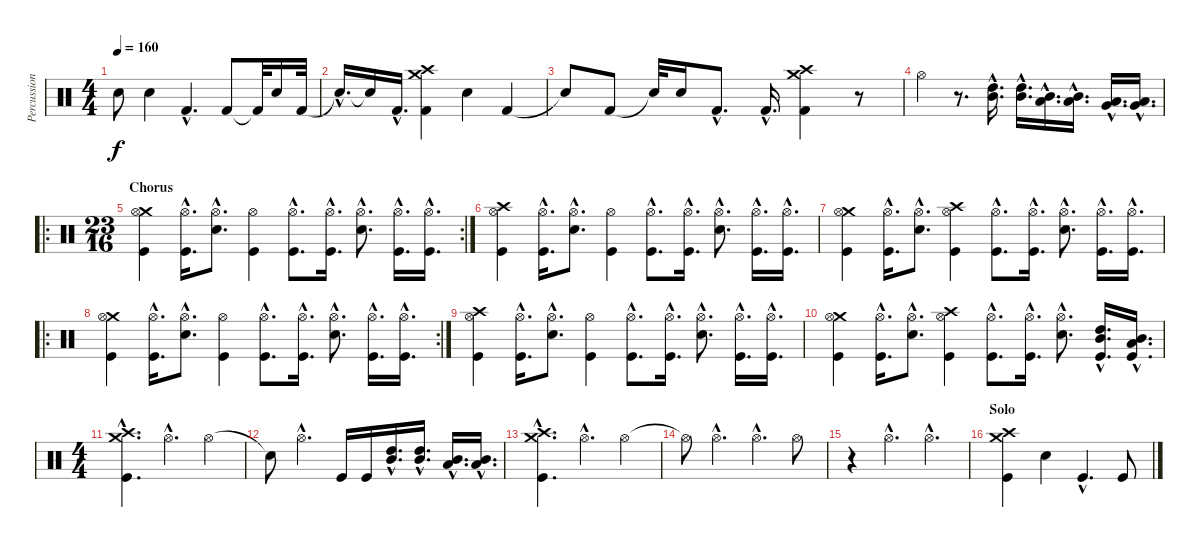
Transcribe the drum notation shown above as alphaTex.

\track ("Percussion" "Percussion") {instrument percussion}
\staff {score}
\articulation defaults
\ts (4 4)
\tempo 160
\clef neutral
\ks c "Snare (hit)"{t}.8{dy f} "Electric Snare (hit)".4 "Kick (hit) 2"{hac}.4{d} "Kick (hit) 2".8 "Kick (hit) 2"{t}.32 "Electric Snare (hit)".16 "Kick (hit) 2".32
|
"Snare (hit)"{hac t}.16{d} "Snare (hit)"{t}.16 "Kick (hit) 2"{hac}.16{d} ("Crash medium (hit)" "Crash high (hit)" "Kick (hit) 2").4 "Electric Snare (hit)".4 "Kick (hit) 2".4 |
"Snare (hit)"{t}.8 "Kick (hit) 2".8 "Snare (hit)"{t}.32 "Electric Snare (hit)".16 "Kick (hit) 2"{hac}.8{d} "Kick (hit) 2"{hac}.16{d} ("Crash medium (hit)" "Crash high (hit)" "Kick (hit) 2").4 r.8 |
"Hi-Hat (open)".4 r.8{d} ("High Tom (hit)"{hac} "Mid Tom (hit)"{hac}).16{d} ("High Tom (hit)"{hac} "Mid Tom (hit)"{hac}).16{d} ("Mid Tom (hit)"{hac} "Low Tom (hit)"{hac}).16{d} ("Mid Tom (hit)"{hac} "Low Tom (hit)"{hac}).16{d} ("Low Tom (hit)"{hac} "Very Low Tom (hit)"{hac}).16{d} ("Low Tom (hit)"{hac} "Very Low Tom (hit)"{hac}).16{d} |
\ro
\rc 2
\ts (23 16)
\section ("" "Chorus")
("Crash medium (hit)" "Hi-Hat (open)" "Kick (hit)").4 ("Hi-Hat (open)"{hac} "Kick (hit)"{hac}).16{d} ("Hi-Hat (open)"{hac} "Electric Snare (hit)"{hac}).8{d} ("Hi-Hat (open)" "Kick (hit)").4 ("Hi-Hat (open)"{hac} "Kick (hit)"{hac}).8{d} ("Hi-Hat (open)"{hac} "Kick (hit)"{hac}).16{d} ("Hi-Hat (open)"{hac} "Electric Snare (hit)"{hac}).8{d} ("Hi-Hat (open)"{hac} "Kick (hit)"{hac}).16{d} ("Hi-Hat (open)"{hac} "Kick (hit)"{hac}).16{d} |
("Crash high (hit)" "Hi-Hat (open)" "Kick (hit)").4 ("Hi-Hat (open)"{hac} "Kick (hit)"{hac}).16{d} ("Hi-Hat (open)"{hac} "Electric Snare (hit)"{hac}).8{d} ("Hi-Hat (open)" "Kick (hit)").4 ("Hi-Hat (open)"{hac} "Kick (hit)"{hac}).8{d} ("Hi-Hat (open)"{hac} "Kick (hit)"{hac}).16{d} ("Hi-Hat (open)"{hac} "Electric Snare (hit)"{hac}).8{d} ("Hi-Hat (open)"{hac} "Kick (hit)"{hac}).16{d} ("Hi-Hat (open)"{hac} "Kick (hit)"{hac}).16{d} |
("Crash medium (hit)" "Hi-Hat (open)" "Kick (hit)").4 ("Hi-Hat (open)"{hac} "Kick (hit)"{hac}).16{d} ("Hi-Hat (open)"{hac} "Electric Snare (hit)"{hac}).8{d} ("Crash high (hit)" "Hi-Hat (open)" "Kick (hit)").4 ("Hi-Hat (open)"{hac} "Kick (hit)"{hac}).8{d} ("Hi-Hat (open)"{hac} "Kick (hit)"{hac}).16{d} ("Hi-Hat (open)"{hac} "Electric Snare (hit)"{hac}).8{d} ("Hi-Hat (open)"{hac} "Kick (hit)"{hac}).16{d} ("Hi-Hat (open)"{hac} "Kick (hit)"{hac}).16{d} |
\ro
\rc 2
("Crash medium (hit)" "Hi-Hat (open)" "Kick (hit)").4 ("Hi-Hat (open)"{hac} "Kick (hit)"{hac}).16{d} ("Hi-Hat (open)"{hac} "Electric Snare (hit)"{hac}).8{d} ("Hi-Hat (open)" "Kick (hit)").4 ("Hi-Hat (open)"{hac} "Kick (hit)"{hac}).8{d} ("Hi-Hat (open)"{hac} "Kick (hit)"{hac}).16{d} ("Hi-Hat (open)"{hac} "Electric Snare (hit)"{hac}).8{d} ("Hi-Hat (open)"{hac} "Kick (hit)"{hac}).16{d} ("Hi-Hat (open)"{hac} "Kick (hit)"{hac}).16{d} |
("Crash high (hit)" "Hi-Hat (open)" "Kick (hit)").4 ("Hi-Hat (open)"{hac} "Kick (hit)"{hac}).16{d} ("Hi-Hat (open)"{hac} "Electric Snare (hit)"{hac}).8{d} ("Hi-Hat (open)" "Kick (hit)").4 ("Hi-Hat (open)"{hac} "Kick (hit)"{hac}).8{d} ("Hi-Hat (open)"{hac} "Kick (hit)"{hac}).16{d} ("Hi-Hat (open)"{hac} "Electric Snare (hit)"{hac}).8{d} ("Hi-Hat (open)"{hac} "Kick (hit)"{hac}).16{d} ("Hi-Hat (open)"{hac} "Kick (hit)"{hac}).16{d} |
("Crash medium (hit)" "Hi-Hat (open)" "Kick (hit)").4 ("Hi-Hat (open)"{hac} "Kick (hit)"{hac}).16{d} ("Hi-Hat (open)"{hac} "Electric Snare (hit)"{hac}).8{d} ("Crash high (hit)" "Hi-Hat (open)" "Kick (hit)").4 ("Hi-Hat (open)"{hac} "Kick (hit)"{hac}).8{d} ("Hi-Hat (open)"{hac} "Kick (hit)"{hac}).16{d} ("Hi-Hat (open)"{hac} "Electric Snare (hit)"{hac}).8{d} ("High Tom (hit)"{hac} "Mid Tom (hit)"{hac} "Kick (hit)"{hac}).16{d} ("Mid Tom (hit)"{hac} "Low Tom (hit)"{hac} "Kick (hit)"{hac}).16{d} |
\ts (4 4)
("Crash medium (hit)"{hac} "Crash high (hit)"{hac} "Kick (hit)"{hac}).4{d} "Hi-Hat (open)"{hac}.4{d} "Hi-Hat (open)".4 |
"Snare (hit)"{t}.8 "Hi-Hat (open)"{hac}.4{d} "Kick (hit)".16 "Kick (hit)".16 ("High Tom (hit)"{hac} "Mid Tom (hit)"{hac}).16{d} ("High Tom (hit)"{hac} "Mid Tom (hit)"{hac}).16{d} ("Mid Tom (hit)"{hac} "Low Tom (hit)"{hac}).16{d} ("Mid Tom (hit)"{hac} "Low Tom (hit)"{hac}).16{d} |
("Crash medium (hit)"{hac} "Crash high (hit)"{hac} "Kick (hit)"{hac}).4{d} "Hi-Hat (open)"{hac}.4{d} "Hi-Hat (open)".4 |
"Hi-Hat (open)"{t}.8 "Hi-Hat (open)"{hac}.4{d} "Hi-Hat (open)"{hac}.4{d} "Hi-Hat (open)".8 |
r.4 "Hi-Hat (open)"{hac}.4{d} "Hi-Hat (open)"{hac}.4{d} |
\section ("" "Solo")
("Crash medium (hit)" "Crash high (hit)" "Kick (hit)").4 "Electric Snare (hit)".4 "Kick (hit)"{hac}.4{d} "Kick (hit)".8
